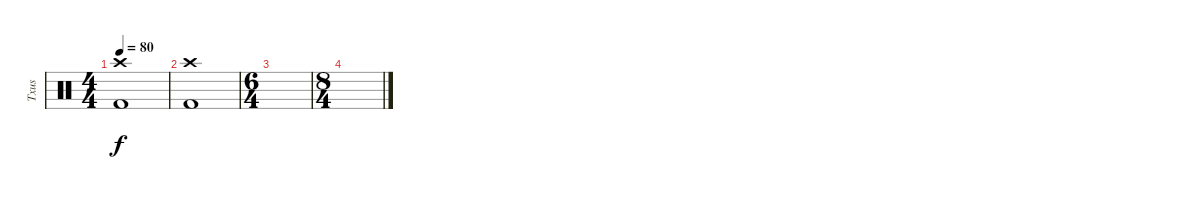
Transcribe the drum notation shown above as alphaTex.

\track ("Txus" "Txus") {instrument percussion}
\staff {score}
\articulation defaults
\ts (4 4)
\tempo 80
\clef neutral
\ks c
("Kick (hit) 2" "Crash high (hit)").1{dy f} |
("Kick (hit) 2" "Crash high (hit)").1 |
\ts (6 4)
|
\ts (8 4)
